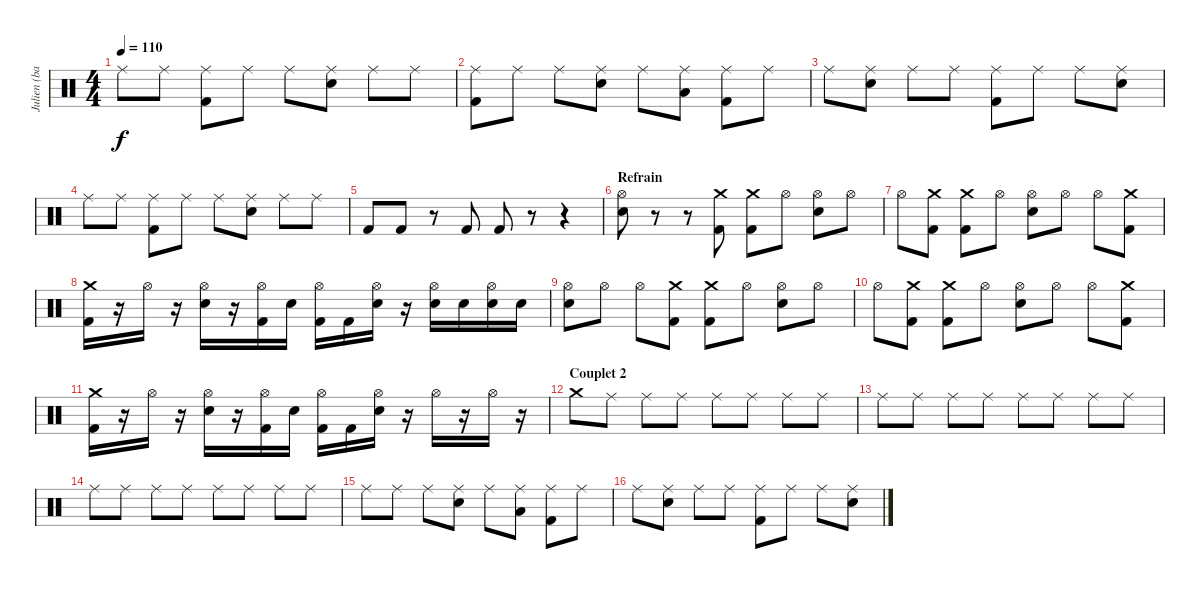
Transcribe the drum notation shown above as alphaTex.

\track ("Julien (batterie)" "Julien (ba") {instrument percussion}
\staff {score}
\articulation defaults
\ts (4 4)
\tempo 110
\clef neutral
\ks c "Ride (middle)".8{dy f} "Ride (middle)".8
("Ride (middle)" "Kick (hit) 2").8 "Ride (middle)".8 "Ride (middle)".8 ("Ride (middle)" "Electric Snare (hit)").8 "Ride (middle)".8 "Ride (middle)".8 |
("Ride (middle)" "Kick (hit) 2").8 "Ride (middle)".8 "Ride (middle)".8 ("Ride (middle)" "Electric Snare (hit)").8 "Ride (middle)".8 ("Ride (middle)" "Low Tom (hit)").8 ("Ride (middle)" "Kick (hit) 2").8 "Ride (middle)".8 |
"Ride (middle)".8 ("Ride (middle)" "Electric Snare (hit)").8 "Ride (middle)".8 "Ride (middle)".8 ("Ride (middle)" "Kick (hit) 2").8 "Ride (middle)".8 "Ride (middle)".8 ("Ride (middle)" "Electric Snare (hit)").8 |
"Ride (middle)".8 "Ride (middle)".8 ("Ride (middle)" "Kick (hit) 2").8 "Ride (middle)".8 "Ride (middle)".8 ("Ride (middle)" "Electric Snare (hit)").8 "Ride (middle)".8 "Ride (middle)".8 |
"Kick (hit) 2".8 "Kick (hit) 2".8 r.8 "Kick (hit) 2".8 "Kick (hit) 2".8 r.8 r.4 |
\section ("" "Refrain")
("Hi-Hat (open)" "Electric Snare (hit)").8 r.8 r.8 ("Crash medium (hit)" "Kick (hit) 2").8 ("Crash medium (hit)" "Kick (hit) 2").8 "Hi-Hat (open)".8 ("Hi-Hat (open)" "Electric Snare (hit)").8 "Hi-Hat (open)".8 |
"Hi-Hat (open)".8 ("Crash medium (hit)" "Kick (hit) 2").8 ("Crash medium (hit)" "Kick (hit) 2").8 "Hi-Hat (open)".8 ("Hi-Hat (open)" "Electric Snare (hit)").8 "Hi-Hat (open)".8 "Hi-Hat (open)".8 ("Crash medium (hit)" "Kick (hit) 2").8 |
("Crash medium (hit)" "Kick (hit) 2").16 r.16 "Hi-Hat (open)".16 r.16 ("Hi-Hat (open)" "Electric Snare (hit)").16 r.16 ("Hi-Hat (open)" "Kick (hit) 2").16 "Electric Snare (hit)".16 ("Hi-Hat (open)" "Kick (hit) 2").16 "Kick (hit) 2".16 ("Hi-Hat (open)" "Electric Snare (hit)").16 r.16 ("Hi-Hat (open)" "Electric Snare (hit)").16 "Electric Snare (hit)".16 ("Hi-Hat (open)" "Electric Snare (hit)").16 "Electric Snare (hit)".16 |
("Hi-Hat (open)" "Electric Snare (hit)").8 "Hi-Hat (open)".8 "Hi-Hat (open)".8 ("Crash medium (hit)" "Kick (hit) 2").8 ("Crash medium (hit)" "Kick (hit) 2").8 "Hi-Hat (open)".8 ("Hi-Hat (open)" "Electric Snare (hit)").8 "Hi-Hat (open)".8 |
"Hi-Hat (open)".8 ("Crash medium (hit)" "Kick (hit) 2").8 ("Crash medium (hit)" "Kick (hit) 2").8 "Hi-Hat (open)".8 ("Hi-Hat (open)" "Electric Snare (hit)").8 "Hi-Hat (open)".8 "Hi-Hat (open)".8 ("Crash medium (hit)" "Kick (hit) 2").8 |
("Crash medium (hit)" "Kick (hit) 2").16 r.16 "Hi-Hat (open)".16 r.16 ("Hi-Hat (open)" "Electric Snare (hit)").16 r.16 ("Hi-Hat (open)" "Kick (hit) 2").16 "Electric Snare (hit)".16 ("Hi-Hat (open)" "Kick (hit) 2").16 "Kick (hit) 2".16 ("Hi-Hat (open)" "Electric Snare (hit)").16 r.16 "Hi-Hat (open)".16 r.16 "Hi-Hat (open)".16 r.16 |
\section ("" "Couplet 2")
"Crash medium (hit)".8 "Ride (middle)".8 "Ride (middle)".8 "Ride (middle)".8 "Ride (middle)".8 "Ride (middle)".8 "Ride (middle)".8 "Ride (middle)".8 |
"Ride (middle)".8 "Ride (middle)".8 "Ride (middle)".8 "Ride (middle)".8 "Ride (middle)".8 "Ride (middle)".8 "Ride (middle)".8 "Ride (middle)".8 |
"Ride (middle)".8 "Ride (middle)".8 "Ride (middle)".8 "Ride (middle)".8 "Ride (middle)".8 "Ride (middle)".8 "Ride (middle)".8 "Ride (middle)".8 |
"Ride (middle)".8 "Ride (middle)".8 "Ride (middle)".8 ("Ride (middle)" "Electric Snare (hit)").8 "Ride (middle)".8 ("Ride (middle)" "Low Tom (hit)").8 ("Ride (middle)" "Kick (hit) 2").8 "Ride (middle)".8 |
"Ride (middle)".8 ("Ride (middle)" "Electric Snare (hit)").8 "Ride (middle)".8 "Ride (middle)".8 ("Ride (middle)" "Kick (hit) 2").8 "Ride (middle)".8 "Ride (middle)".8 ("Ride (middle)" "Electric Snare (hit)").8
